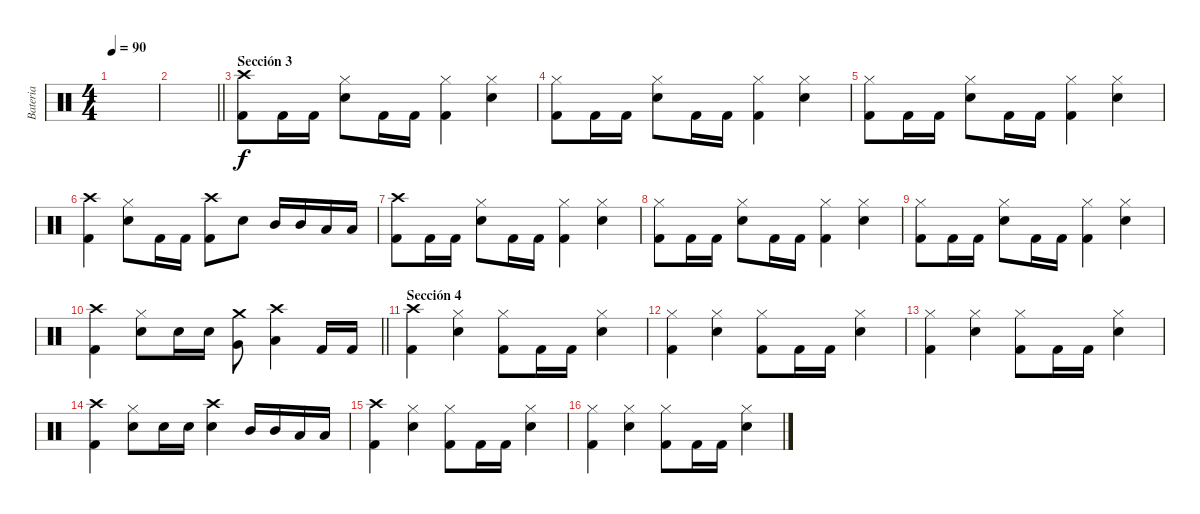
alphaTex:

\track ("Bateria" "Bateria") {instrument percussion}
\staff {score}
\articulation defaults
\ts (4 4)
\tempo 90
\clef neutral
\ks c
|
\barLineRight lightlight
|
\section ("" "Sección 3")
("Crash high (hit)" "Kick (hit) 2").8 "Kick (hit) 2".16 "Kick (hit) 2".16 ("Hi-Hat (closed)" "Snare (hit) 2").8 "Kick (hit) 2".16 "Kick (hit) 2".16 ("Hi-Hat (closed)" "Kick (hit) 2").4 ("Hi-Hat (closed)" "Snare (hit) 2").4 |
("Hi-Hat (closed)" "Kick (hit) 2").8 "Kick (hit) 2".16 "Kick (hit) 2".16 ("Hi-Hat (closed)" "Snare (hit) 2").8 "Kick (hit) 2".16 "Kick (hit) 2".16 ("Hi-Hat (closed)" "Kick (hit) 2").4 ("Hi-Hat (closed)" "Snare (hit) 2").4 |
("Hi-Hat (closed)" "Kick (hit) 2").8 "Kick (hit) 2".16 "Kick (hit) 2".16 ("Hi-Hat (closed)" "Snare (hit) 2").8 "Kick (hit) 2".16 "Kick (hit) 2".16 ("Hi-Hat (closed)" "Kick (hit) 2").4 ("Hi-Hat (closed)" "Snare (hit) 2").4 |
("Crash high (hit)" "Kick (hit) 2").4 ("Hi-Hat (closed)" "Snare (hit) 2").8 "Kick (hit) 2".16 "Kick (hit) 2".16 ("Crash high (hit)" "Kick (hit) 2").8 "Snare (hit) 2".8 "Mid Tom (hit)".16 "Mid Tom (hit)".16 "Low Tom (hit)".16 "Low Tom (hit)".16 |
("Crash high (hit)" "Kick (hit) 2").8 "Kick (hit) 2".16 "Kick (hit) 2".16 ("Hi-Hat (closed)" "Snare (hit) 2").8 "Kick (hit) 2".16 "Kick (hit) 2".16 ("Hi-Hat (closed)" "Kick (hit) 2").4 ("Hi-Hat (closed)" "Snare (hit) 2").4 |
("Hi-Hat (closed)" "Kick (hit) 2").8 "Kick (hit) 2".16 "Kick (hit) 2".16 ("Hi-Hat (closed)" "Snare (hit) 2").8 "Kick (hit) 2".16 "Kick (hit) 2".16 ("Hi-Hat (closed)" "Kick (hit) 2").4 ("Hi-Hat (closed)" "Snare (hit) 2").4 |
("Hi-Hat (closed)" "Kick (hit) 2").8 "Kick (hit) 2".16 "Kick (hit) 2".16 ("Hi-Hat (closed)" "Snare (hit) 2").8 "Kick (hit) 2".16 "Kick (hit) 2".16 ("Hi-Hat (closed)" "Kick (hit) 2").4 ("Hi-Hat (closed)" "Snare (hit) 2").4 |
\barLineRight lightlight
("Crash high (hit)" "Kick (hit) 2").4 ("Hi-Hat (closed)" "Snare (hit) 2").8 "Snare (hit) 2".16 "Snare (hit) 2".16 ("Crash medium (hit)" "Very Low Tom (hit)").8 ("Crash high (hit)" "Low Floor Tom (hit)").4 "Kick (hit) 2".16 "Kick (hit) 2".16 |
\section ("" "Sección 4")
("Crash high (hit)" "Kick (hit) 2").4 ("Hi-Hat (closed)" "Snare (hit) 2").4 ("Hi-Hat (closed)" "Kick (hit) 2").8 "Kick (hit) 2".16 "Kick (hit) 2".16 ("Hi-Hat (closed)" "Snare (hit) 2").4 |
("Hi-Hat (closed)" "Kick (hit) 2").4 ("Hi-Hat (closed)" "Snare (hit) 2").4 ("Hi-Hat (closed)" "Kick (hit) 2").8 "Kick (hit) 2".16 "Kick (hit) 2".16 ("Hi-Hat (closed)" "Snare (hit) 2").4 |
("Hi-Hat (closed)" "Kick (hit) 2").4 ("Hi-Hat (closed)" "Snare (hit) 2").4 ("Hi-Hat (closed)" "Kick (hit) 2").8 "Kick (hit) 2".16 "Kick (hit) 2".16 ("Hi-Hat (closed)" "Snare (hit) 2").4 |
("Crash high (hit)" "Kick (hit) 2").4 ("Hi-Hat (closed)" "Snare (hit) 2").8 "Snare (hit) 2".16 "Snare (hit) 2".16 ("Crash high (hit)" "Snare (hit) 2").4 "Mid Tom (hit)".16 "Mid Tom (hit)".16 "Low Tom (hit)".16 "Low Tom (hit)".16 |
("Crash high (hit)" "Kick (hit) 2").4 ("Hi-Hat (closed)" "Snare (hit) 2").4 ("Hi-Hat (closed)" "Kick (hit) 2").8 "Kick (hit) 2".16 "Kick (hit) 2".16 ("Hi-Hat (closed)" "Snare (hit) 2").4 |
("Hi-Hat (closed)" "Kick (hit) 2").4 ("Hi-Hat (closed)" "Snare (hit) 2").4 ("Hi-Hat (closed)" "Kick (hit) 2").8 "Kick (hit) 2".16 "Kick (hit) 2".16 ("Hi-Hat (closed)" "Snare (hit) 2").4
